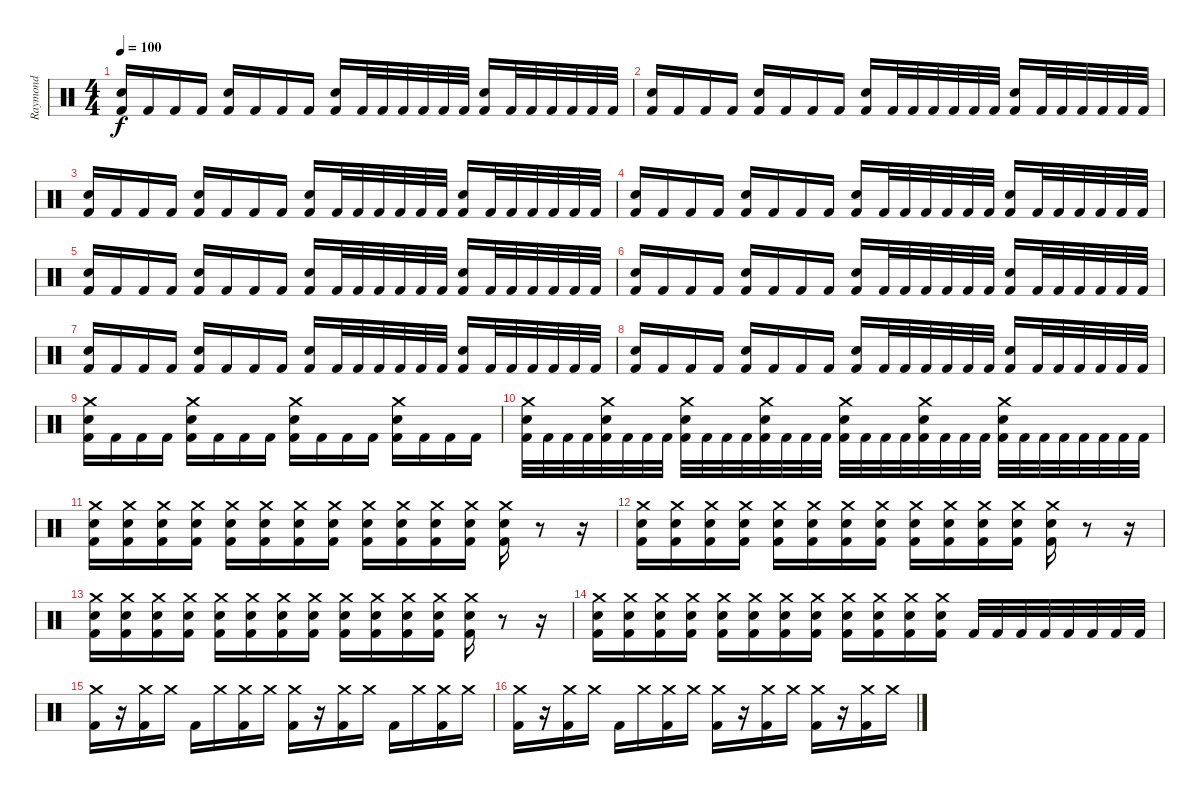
\track ("Raymond" "Raymond") {instrument percussion}
\staff {score}
\articulation defaults
\ts (4 4)
\tempo 100
\clef neutral
\ks c
("Snare (hit) 2" "Kick (hit) 2").16{dy f} "Kick (hit) 2".16 "Kick (hit) 2".16 "Kick (hit) 2".16 ("Snare (hit) 2" "Kick (hit) 2").16 "Kick (hit) 2".16 "Kick (hit) 2".16 "Kick (hit) 2".16 ("Snare (hit) 2" "Kick (hit) 2").16 "Kick (hit) 2".32 "Kick (hit) 2".32 "Kick (hit) 2".32 "Kick (hit) 2".32 "Kick (hit) 2".32 "Kick (hit) 2".32 ("Snare (hit) 2" "Kick (hit) 2").16 "Kick (hit) 2".32 "Kick (hit) 2".32 "Kick (hit) 2".32 "Kick (hit) 2".32 "Kick (hit) 2".32 "Kick (hit) 2".32 |
("Snare (hit) 2" "Kick (hit) 2").16 "Kick (hit) 2".16 "Kick (hit) 2".16 "Kick (hit) 2".16 ("Snare (hit) 2" "Kick (hit) 2").16 "Kick (hit) 2".16 "Kick (hit) 2".16 "Kick (hit) 2".16 ("Snare (hit) 2" "Kick (hit) 2").16 "Kick (hit) 2".32 "Kick (hit) 2".32 "Kick (hit) 2".32 "Kick (hit) 2".32 "Kick (hit) 2".32 "Kick (hit) 2".32 ("Snare (hit) 2" "Kick (hit) 2").16 "Kick (hit) 2".32 "Kick (hit) 2".32 "Kick (hit) 2".32 "Kick (hit) 2".32 "Kick (hit) 2".32 "Kick (hit) 2".32 |
("Snare (hit) 2" "Kick (hit) 2").16 "Kick (hit) 2".16 "Kick (hit) 2".16 "Kick (hit) 2".16 ("Snare (hit) 2" "Kick (hit) 2").16 "Kick (hit) 2".16 "Kick (hit) 2".16 "Kick (hit) 2".16 ("Snare (hit) 2" "Kick (hit) 2").16 "Kick (hit) 2".32 "Kick (hit) 2".32 "Kick (hit) 2".32 "Kick (hit) 2".32 "Kick (hit) 2".32 "Kick (hit) 2".32 ("Snare (hit) 2" "Kick (hit) 2").16 "Kick (hit) 2".32 "Kick (hit) 2".32 "Kick (hit) 2".32 "Kick (hit) 2".32 "Kick (hit) 2".32 "Kick (hit) 2".32 |
("Snare (hit) 2" "Kick (hit) 2").16 "Kick (hit) 2".16 "Kick (hit) 2".16 "Kick (hit) 2".16 ("Snare (hit) 2" "Kick (hit) 2").16 "Kick (hit) 2".16 "Kick (hit) 2".16 "Kick (hit) 2".16 ("Snare (hit) 2" "Kick (hit) 2").16 "Kick (hit) 2".32 "Kick (hit) 2".32 "Kick (hit) 2".32 "Kick (hit) 2".32 "Kick (hit) 2".32 "Kick (hit) 2".32 ("Snare (hit) 2" "Kick (hit) 2").16 "Kick (hit) 2".32 "Kick (hit) 2".32 "Kick (hit) 2".32 "Kick (hit) 2".32 "Kick (hit) 2".32 "Kick (hit) 2".32 |
("Snare (hit) 2" "Kick (hit) 2").16 "Kick (hit) 2".16 "Kick (hit) 2".16 "Kick (hit) 2".16 ("Snare (hit) 2" "Kick (hit) 2").16 "Kick (hit) 2".16 "Kick (hit) 2".16 "Kick (hit) 2".16 ("Snare (hit) 2" "Kick (hit) 2").16 "Kick (hit) 2".32 "Kick (hit) 2".32 "Kick (hit) 2".32 "Kick (hit) 2".32 "Kick (hit) 2".32 "Kick (hit) 2".32 ("Snare (hit) 2" "Kick (hit) 2").16 "Kick (hit) 2".32 "Kick (hit) 2".32 "Kick (hit) 2".32 "Kick (hit) 2".32 "Kick (hit) 2".32 "Kick (hit) 2".32 |
("Snare (hit) 2" "Kick (hit) 2").16 "Kick (hit) 2".16 "Kick (hit) 2".16 "Kick (hit) 2".16 ("Snare (hit) 2" "Kick (hit) 2").16 "Kick (hit) 2".16 "Kick (hit) 2".16 "Kick (hit) 2".16 ("Snare (hit) 2" "Kick (hit) 2").16 "Kick (hit) 2".32 "Kick (hit) 2".32 "Kick (hit) 2".32 "Kick (hit) 2".32 "Kick (hit) 2".32 "Kick (hit) 2".32 ("Snare (hit) 2" "Kick (hit) 2").16 "Kick (hit) 2".32 "Kick (hit) 2".32 "Kick (hit) 2".32 "Kick (hit) 2".32 "Kick (hit) 2".32 "Kick (hit) 2".32 |
("Snare (hit) 2" "Kick (hit) 2").16 "Kick (hit) 2".16 "Kick (hit) 2".16 "Kick (hit) 2".16 ("Snare (hit) 2" "Kick (hit) 2").16 "Kick (hit) 2".16 "Kick (hit) 2".16 "Kick (hit) 2".16 ("Snare (hit) 2" "Kick (hit) 2").16 "Kick (hit) 2".32 "Kick (hit) 2".32 "Kick (hit) 2".32 "Kick (hit) 2".32 "Kick (hit) 2".32 "Kick (hit) 2".32 ("Snare (hit) 2" "Kick (hit) 2").16 "Kick (hit) 2".32 "Kick (hit) 2".32 "Kick (hit) 2".32 "Kick (hit) 2".32 "Kick (hit) 2".32 "Kick (hit) 2".32 |
("Snare (hit) 2" "Kick (hit) 2").16 "Kick (hit) 2".16 "Kick (hit) 2".16 "Kick (hit) 2".16 ("Snare (hit) 2" "Kick (hit) 2").16 "Kick (hit) 2".16 "Kick (hit) 2".16 "Kick (hit) 2".16 ("Snare (hit) 2" "Kick (hit) 2").16 "Kick (hit) 2".32 "Kick (hit) 2".32 "Kick (hit) 2".32 "Kick (hit) 2".32 "Kick (hit) 2".32 "Kick (hit) 2".32 ("Snare (hit) 2" "Kick (hit) 2").16 "Kick (hit) 2".32 "Kick (hit) 2".32 "Kick (hit) 2".32 "Kick (hit) 2".32 "Kick (hit) 2".32 "Kick (hit) 2".32 |
("Crash medium (hit)" "Snare (hit) 2" "Kick (hit) 2").16 "Kick (hit) 2".16 "Kick (hit) 2".16 "Kick (hit) 2".16 ("Crash medium (hit)" "Snare (hit) 2" "Kick (hit) 2").16 "Kick (hit) 2".16 "Kick (hit) 2".16 "Kick (hit) 2".16 ("Crash medium (hit)" "Snare (hit) 2" "Kick (hit) 2").16 "Kick (hit) 2".16 "Kick (hit) 2".16 "Kick (hit) 2".16 ("Crash medium (hit)" "Snare (hit) 2" "Kick (hit) 2").16 "Kick (hit) 2".16 "Kick (hit) 2".16 "Kick (hit) 2".16 |
("Crash medium (hit)" "Snare (hit) 2" "Kick (hit) 2").32 "Kick (hit) 2".32 "Kick (hit) 2".32 "Kick (hit) 2".32 ("Crash medium (hit)" "Snare (hit) 2" "Kick (hit) 2").32 "Kick (hit) 2".32 "Kick (hit) 2".32 "Kick (hit) 2".32 ("Crash medium (hit)" "Snare (hit) 2" "Kick (hit) 2").32 "Kick (hit) 2".32 "Kick (hit) 2".32 "Kick (hit) 2".32 ("Crash medium (hit)" "Snare (hit) 2" "Kick (hit) 2").32 "Kick (hit) 2".32 "Kick (hit) 2".32 "Kick (hit) 2".32 ("Crash medium (hit)" "Snare (hit) 2" "Kick (hit) 2").32 "Kick (hit) 2".32 "Kick (hit) 2".32 "Kick (hit) 2".32 ("Crash medium (hit)" "Snare (hit) 2" "Kick (hit) 2").32 "Kick (hit) 2".32 "Kick (hit) 2".32 "Kick (hit) 2".32 ("Crash medium (hit)" "Snare (hit) 2" "Kick (hit) 2").32 "Kick (hit) 2".32 "Kick (hit) 2".32 "Kick (hit) 2".32 "Kick (hit) 2".32 "Kick (hit) 2".32 "Kick (hit) 2".32 "Kick (hit) 2".32 |
("Crash medium (hit)" "Snare (hit) 2" "Kick (hit) 2").16 ("Crash medium (hit)" "Snare (hit) 2" "Kick (hit) 2").16 ("Crash medium (hit)" "Snare (hit) 2" "Kick (hit) 2").16 ("Crash medium (hit)" "Snare (hit) 2" "Kick (hit) 2").16 ("Crash medium (hit)" "Snare (hit) 2" "Kick (hit) 2").16 ("Crash medium (hit)" "Snare (hit) 2" "Kick (hit) 2").16 ("Crash medium (hit)" "Snare (hit) 2" "Kick (hit) 2").16 ("Crash medium (hit)" "Snare (hit) 2" "Kick (hit) 2").16 ("Crash medium (hit)" "Snare (hit) 2" "Kick (hit) 2").16 ("Crash medium (hit)" "Snare (hit) 2" "Kick (hit) 2").16 ("Crash medium (hit)" "Snare (hit) 2" "Kick (hit) 2").16 ("Crash medium (hit)" "Snare (hit) 2" "Kick (hit) 2").16 ("Crash medium (hit)" "Snare (hit) 2" "Kick (hit) 2").16 r.8 r.16 |
("Crash medium (hit)" "Snare (hit) 2" "Kick (hit) 2").16 ("Crash medium (hit)" "Snare (hit) 2" "Kick (hit) 2").16 ("Crash medium (hit)" "Snare (hit) 2" "Kick (hit) 2").16 ("Crash medium (hit)" "Snare (hit) 2" "Kick (hit) 2").16 ("Crash medium (hit)" "Snare (hit) 2" "Kick (hit) 2").16 ("Crash medium (hit)" "Snare (hit) 2" "Kick (hit) 2").16 ("Crash medium (hit)" "Snare (hit) 2" "Kick (hit) 2").16 ("Crash medium (hit)" "Snare (hit) 2" "Kick (hit) 2").16 ("Crash medium (hit)" "Snare (hit) 2" "Kick (hit) 2").16 ("Crash medium (hit)" "Snare (hit) 2" "Kick (hit) 2").16 ("Crash medium (hit)" "Snare (hit) 2" "Kick (hit) 2").16 ("Crash medium (hit)" "Snare (hit) 2" "Kick (hit) 2").16 ("Crash medium (hit)" "Snare (hit) 2" "Kick (hit) 2").16 r.8 r.16 |
("Crash medium (hit)" "Snare (hit) 2" "Kick (hit) 2").16 ("Crash medium (hit)" "Snare (hit) 2" "Kick (hit) 2").16 ("Crash medium (hit)" "Snare (hit) 2" "Kick (hit) 2").16 ("Crash medium (hit)" "Snare (hit) 2" "Kick (hit) 2").16 ("Crash medium (hit)" "Snare (hit) 2" "Kick (hit) 2").16 ("Crash medium (hit)" "Snare (hit) 2" "Kick (hit) 2").16 ("Crash medium (hit)" "Snare (hit) 2" "Kick (hit) 2").16 ("Crash medium (hit)" "Snare (hit) 2" "Kick (hit) 2").16 ("Crash medium (hit)" "Snare (hit) 2" "Kick (hit) 2").16 ("Crash medium (hit)" "Snare (hit) 2" "Kick (hit) 2").16 ("Crash medium (hit)" "Snare (hit) 2" "Kick (hit) 2").16 ("Crash medium (hit)" "Snare (hit) 2" "Kick (hit) 2").16 ("Crash medium (hit)" "Snare (hit) 2" "Kick (hit) 2").16 r.8 r.16 |
("Crash medium (hit)" "Snare (hit) 2" "Kick (hit) 2").16 ("Crash medium (hit)" "Snare (hit) 2" "Kick (hit) 2").16 ("Crash medium (hit)" "Snare (hit) 2" "Kick (hit) 2").16 ("Crash medium (hit)" "Snare (hit) 2" "Kick (hit) 2").16 ("Crash medium (hit)" "Snare (hit) 2" "Kick (hit) 2").16 ("Crash medium (hit)" "Snare (hit) 2" "Kick (hit) 2").16 ("Crash medium (hit)" "Snare (hit) 2" "Kick (hit) 2").16 ("Crash medium (hit)" "Snare (hit) 2" "Kick (hit) 2").16 ("Crash medium (hit)" "Snare (hit) 2" "Kick (hit) 2").16 ("Crash medium (hit)" "Snare (hit) 2" "Kick (hit) 2").16 ("Crash medium (hit)" "Snare (hit) 2" "Kick (hit) 2").16 ("Crash medium (hit)" "Snare (hit) 2" "Kick (hit) 2").16 "Kick (hit) 2".32 "Kick (hit) 2".32 "Kick (hit) 2".32 "Kick (hit) 2".32 "Kick (hit) 2".32 "Kick (hit) 2".32 "Kick (hit) 2".32 "Kick (hit) 2".32 |
("Crash medium (hit)" "Kick (hit) 2").16 r.16 ("Crash medium (hit)" "Kick (hit) 2").16 "Crash medium (hit)".16 "Kick (hit) 2".16 "Crash medium (hit)".16 ("Crash medium (hit)" "Kick (hit) 2").16 "Crash medium (hit)".16 ("Crash medium (hit)" "Kick (hit) 2").16 r.16 ("Crash medium (hit)" "Kick (hit) 2").16 "Crash medium (hit)".16 "Kick (hit) 2".16 "Crash medium (hit)".16 ("Crash medium (hit)" "Kick (hit) 2").16 "Crash medium (hit)".16 |
("Crash medium (hit)" "Kick (hit) 2").16 r.16 ("Crash medium (hit)" "Kick (hit) 2").16 "Crash medium (hit)".16 "Kick (hit) 2".16 "Crash medium (hit)".16 ("Crash medium (hit)" "Kick (hit) 2").16 "Crash medium (hit)".16 ("Crash medium (hit)" "Kick (hit) 2").16 r.16 ("Crash medium (hit)" "Kick (hit) 2").16 "Crash medium (hit)".16 ("Crash medium (hit)" "Kick (hit) 2").16 r.16 ("Crash medium (hit)" "Kick (hit) 2").16 "Crash medium (hit)".16
